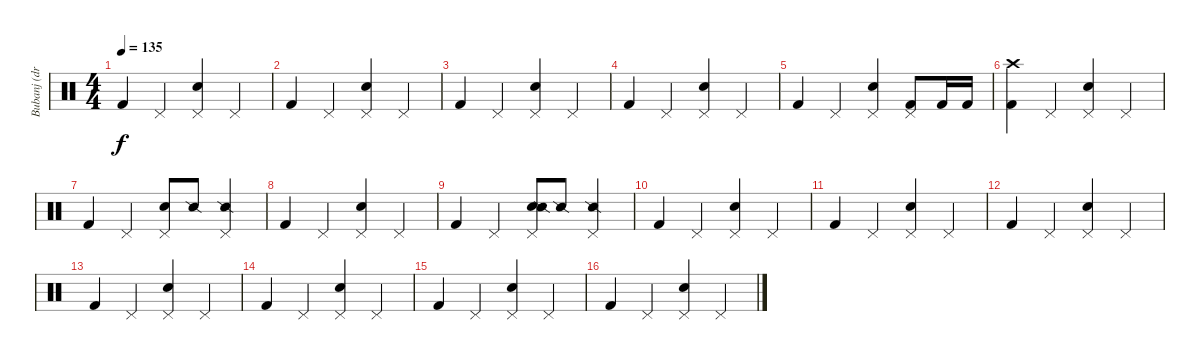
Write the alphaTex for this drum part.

\track ("Bubanj (drums)" "Bubanj (dr") {instrument percussion}
\staff {score}
\articulation defaults
\ts (4 4)
\tempo 135
\clef neutral
\ks c "Kick (hit) 2".4{dy f} "Pedal Hi-Hat (hit)".4
("Pedal Hi-Hat (hit)" "Snare (hit) 2").4 "Pedal Hi-Hat (hit)".4 |
"Kick (hit) 2".4 "Pedal Hi-Hat (hit)".4 ("Pedal Hi-Hat (hit)" "Snare (hit) 2").4 "Pedal Hi-Hat (hit)".4 |
"Kick (hit) 2".4 "Pedal Hi-Hat (hit)".4 ("Pedal Hi-Hat (hit)" "Snare (hit) 2").4 "Pedal Hi-Hat (hit)".4 |
"Kick (hit) 2".4 "Pedal Hi-Hat (hit)".4 ("Pedal Hi-Hat (hit)" "Snare (hit) 2").4 "Pedal Hi-Hat (hit)".4 |
"Kick (hit) 2".4 "Pedal Hi-Hat (hit)".4 ("Pedal Hi-Hat (hit)" "Snare (hit) 2").4 ("Pedal Hi-Hat (hit)" "Kick (hit) 2").8 "Kick (hit) 2".16 "Kick (hit) 2".16 |
("Kick (hit) 2" "Crash high (hit)").4 "Pedal Hi-Hat (hit)".4 ("Pedal Hi-Hat (hit)" "Snare (hit) 2").4 "Pedal Hi-Hat (hit)".4 |
"Kick (hit) 2".4 "Pedal Hi-Hat (hit)".4 ("Pedal Hi-Hat (hit)" "Snare (hit) 2").8 "Snare (side stick) 2".8 ("Pedal Hi-Hat (hit)" "Snare (side stick) 2").4 |
"Kick (hit) 2".4 "Pedal Hi-Hat (hit)".4 ("Pedal Hi-Hat (hit)" "Snare (hit) 2").4 "Pedal Hi-Hat (hit)".4 |
"Kick (hit) 2".4 "Pedal Hi-Hat (hit)".4 ("Pedal Hi-Hat (hit)" "Snare (hit) 2" "Snare (side stick) 2").8 "Snare (side stick) 2".8 ("Pedal Hi-Hat (hit)" "Snare (side stick) 2").4 |
"Kick (hit) 2".4 "Pedal Hi-Hat (hit)".4 ("Pedal Hi-Hat (hit)" "Snare (hit) 2").4 "Pedal Hi-Hat (hit)".4 |
"Kick (hit) 2".4 "Pedal Hi-Hat (hit)".4 ("Pedal Hi-Hat (hit)" "Snare (hit) 2").4 "Pedal Hi-Hat (hit)".4 |
"Kick (hit) 2".4 "Pedal Hi-Hat (hit)".4 ("Pedal Hi-Hat (hit)" "Snare (hit) 2").4 "Pedal Hi-Hat (hit)".4 |
"Kick (hit) 2".4 "Pedal Hi-Hat (hit)".4 ("Pedal Hi-Hat (hit)" "Snare (hit) 2").4 "Pedal Hi-Hat (hit)".4 |
"Kick (hit) 2".4 "Pedal Hi-Hat (hit)".4 ("Pedal Hi-Hat (hit)" "Snare (hit) 2").4 "Pedal Hi-Hat (hit)".4 |
"Kick (hit) 2".4 "Pedal Hi-Hat (hit)".4 ("Pedal Hi-Hat (hit)" "Snare (hit) 2").4 "Pedal Hi-Hat (hit)".4 |
"Kick (hit) 2".4 "Pedal Hi-Hat (hit)".4 ("Pedal Hi-Hat (hit)" "Snare (hit) 2").4 "Pedal Hi-Hat (hit)".4
